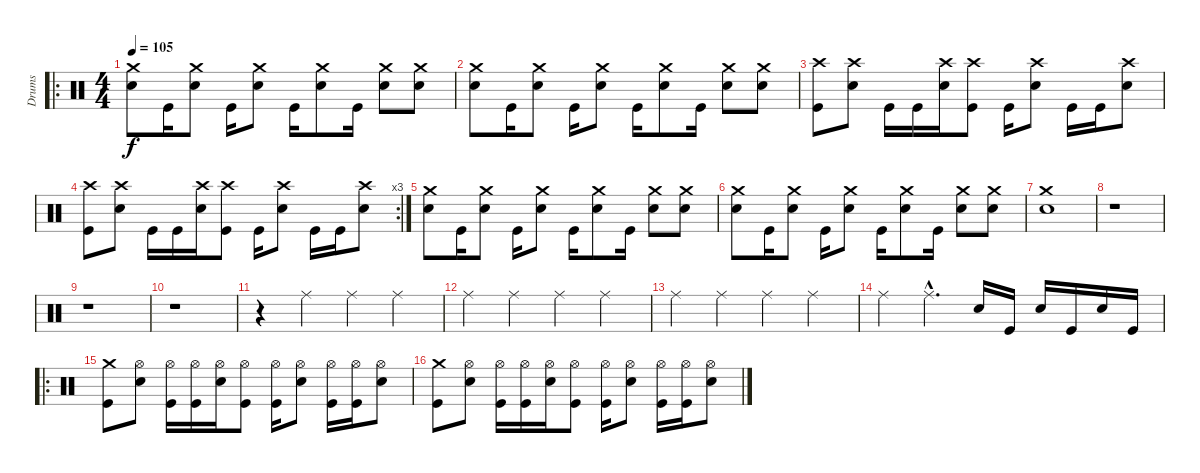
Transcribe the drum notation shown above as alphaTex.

\track ("Drums" "Drums") {instrument percussion}
\staff {score}
\articulation defaults
\ro
\ts (4 4)
\tempo 105
\clef neutral
\ks c
("Electric Snare (hit)" "Crash medium (hit)").8{dy f} "Kick (hit)".16 ("Electric Snare (hit)" "Crash medium (hit)").8 "Kick (hit)".16 ("Electric Snare (hit)" "Crash medium (hit)").8 "Kick (hit)".16 ("Electric Snare (hit)" "Crash medium (hit)").8 "Kick (hit)".16 ("Electric Snare (hit)" "Crash medium (hit)").8 ("Electric Snare (hit)" "Crash medium (hit)").8 |
("Electric Snare (hit)" "Crash medium (hit)").8 "Kick (hit)".16 ("Electric Snare (hit)" "Crash medium (hit)").8 "Kick (hit)".16 ("Electric Snare (hit)" "Crash medium (hit)").8 "Kick (hit)".16 ("Electric Snare (hit)" "Crash medium (hit)").8 "Kick (hit)".16 ("Electric Snare (hit)" "Crash medium (hit)").8 ("Electric Snare (hit)" "Crash medium (hit)").8 |
("Crash high (hit)" "Kick (hit)").8 ("Electric Snare (hit)" "Crash high (hit)").8 "Kick (hit)".16 "Kick (hit)".16 ("Electric Snare (hit)" "Crash high (hit)").16 ("Crash high (hit)" "Kick (hit)").8 "Kick (hit)".16 ("Electric Snare (hit)" "Crash high (hit)").8 "Kick (hit)".16 "Kick (hit)".16 ("Electric Snare (hit)" "Crash high (hit)").8 |
\rc 3
("Crash high (hit)" "Kick (hit)").8 ("Electric Snare (hit)" "Crash high (hit)").8 "Kick (hit)".16 "Kick (hit)".16 ("Electric Snare (hit)" "Crash high (hit)").16 ("Crash high (hit)" "Kick (hit)").8 "Kick (hit)".16 ("Electric Snare (hit)" "Crash high (hit)").8 "Kick (hit)".16 "Kick (hit)".16 ("Electric Snare (hit)" "Crash high (hit)").8 |
("Electric Snare (hit)" "Crash medium (hit)").8 "Kick (hit)".16 ("Electric Snare (hit)" "Crash medium (hit)").8 "Kick (hit)".16 ("Electric Snare (hit)" "Crash medium (hit)").8 "Kick (hit)".16 ("Electric Snare (hit)" "Crash medium (hit)").8 "Kick (hit)".16 ("Electric Snare (hit)" "Crash medium (hit)").8 ("Electric Snare (hit)" "Crash medium (hit)").8 |
("Electric Snare (hit)" "Crash medium (hit)").8 "Kick (hit)".16 ("Electric Snare (hit)" "Crash medium (hit)").8 "Kick (hit)".16 ("Electric Snare (hit)" "Crash medium (hit)").8 "Kick (hit)".16 ("Electric Snare (hit)" "Crash medium (hit)").8 "Kick (hit)".16 ("Electric Snare (hit)" "Crash medium (hit)").8 ("Electric Snare (hit)" "Crash medium (hit)").8 |
("Crash medium (hit)" "Electric Snare (hit)").1 |
r.1 |
r.1 |
r.1 |
r.4 "Ride (middle)".4 "Ride (middle)".4 "Ride (middle)".4 |
"Ride (middle)".4 "Ride (middle)".4 "Ride (middle)".4 "Ride (middle)".4 |
"Ride (middle)".4 "Ride (middle)".4 "Ride (middle)".4 "Ride (middle)".4 |
"Ride (middle)".4 "Ride (middle)"{hac}.4{d} "Electric Snare (hit)".16 "Kick (hit)".16 "Electric Snare (hit)".16 "Kick (hit)".16 "Electric Snare (hit)".16 "Kick (hit)".16 |
\ro
("Crash medium (hit)" "Kick (hit)").8 ("Electric Snare (hit)" "Hi-Hat (open)").8 ("Hi-Hat (open)" "Kick (hit)").16 ("Hi-Hat (open)" "Kick (hit)").16 ("Electric Snare (hit)" "Hi-Hat (open)").16 ("Hi-Hat (open)" "Kick (hit)").8 ("Hi-Hat (open)" "Kick (hit)").16 ("Electric Snare (hit)" "Hi-Hat (open)").8 ("Hi-Hat (open)" "Kick (hit)").16 ("Hi-Hat (open)" "Kick (hit)").16 ("Electric Snare (hit)" "Hi-Hat (open)").8 |
("Crash medium (hit)" "Kick (hit)").8 ("Electric Snare (hit)" "Hi-Hat (open)").8 ("Hi-Hat (open)" "Kick (hit)").16 ("Hi-Hat (open)" "Kick (hit)").16 ("Electric Snare (hit)" "Hi-Hat (open)").16 ("Hi-Hat (open)" "Kick (hit)").8 ("Hi-Hat (open)" "Kick (hit)").16 ("Electric Snare (hit)" "Hi-Hat (open)").8 ("Hi-Hat (open)" "Kick (hit)").16 ("Hi-Hat (open)" "Kick (hit)").16 ("Electric Snare (hit)" "Hi-Hat (open)").8
